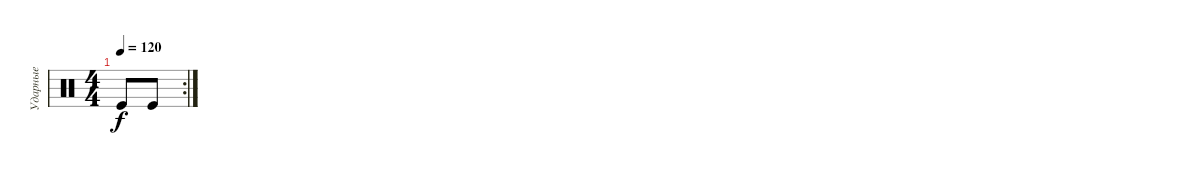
\track ("Ударные" "Ударные") {instrument percussion}
\staff {score}
\articulation defaults
\rc 2
\ts (4 4)
\tempo 120
\clef neutral
\ks c "Kick (hit)".8{dy f} "Kick (hit)".8
